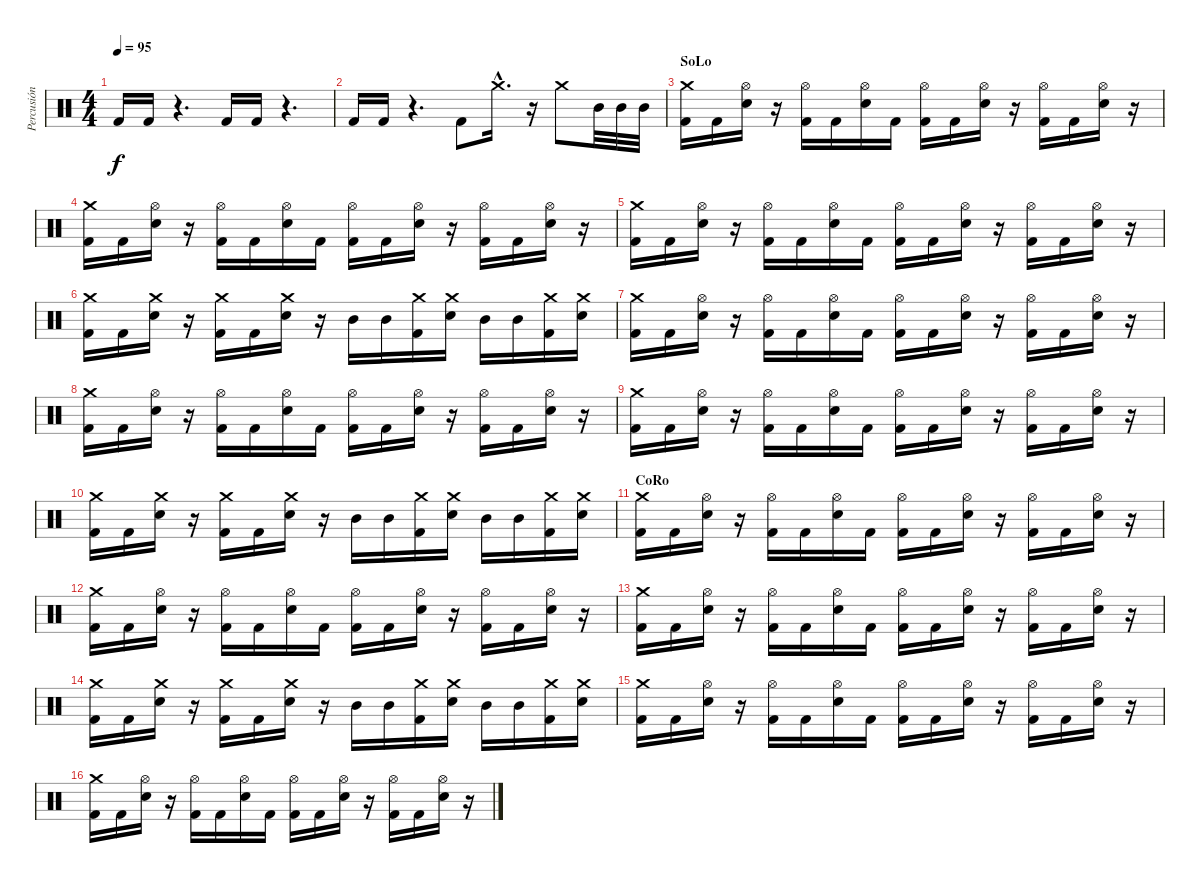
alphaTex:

\track ("Percusión" "Percusión") {instrument percussion}
\staff {score}
\articulation defaults
\ts (4 4)
\tempo 95
\clef neutral
\ks c "Kick (hit) 2".16{dy f} "Kick (hit) 2".16
r.4{d} "Kick (hit) 2".16 "Kick (hit) 2".16 r.4{d} |
"Kick (hit) 2".16 "Kick (hit) 2".16 r.4{d} "Kick (hit) 2".8 "Crash medium (hit)"{hac}.16{d} r.16 "Crash medium (hit)".8 "Mid Tom (hit)".32 "Mid Tom (hit)".32 "Mid Tom (hit)".32 |
\section ("" "SoLo")
("Crash medium (hit)" "Kick (hit) 2").16 "Kick (hit) 2".16 ("Hi-Hat (open)" "Electric Snare (hit)").16 r.16 ("Hi-Hat (open)" "Kick (hit) 2").16 "Kick (hit) 2".16 ("Hi-Hat (open)" "Electric Snare (hit)").16 "Kick (hit) 2".16 ("Hi-Hat (open)" "Kick (hit) 2").16 "Kick (hit) 2".16 ("Hi-Hat (open)" "Electric Snare (hit)").16 r.16 ("Hi-Hat (open)" "Kick (hit) 2").16 "Kick (hit) 2".16 ("Hi-Hat (open)" "Electric Snare (hit)").16 r.16 |
("Crash medium (hit)" "Kick (hit) 2").16 "Kick (hit) 2".16 ("Hi-Hat (open)" "Electric Snare (hit)").16 r.16 ("Hi-Hat (open)" "Kick (hit) 2").16 "Kick (hit) 2".16 ("Hi-Hat (open)" "Electric Snare (hit)").16 "Kick (hit) 2".16 ("Hi-Hat (open)" "Kick (hit) 2").16 "Kick (hit) 2".16 ("Hi-Hat (open)" "Electric Snare (hit)").16 r.16 ("Hi-Hat (open)" "Kick (hit) 2").16 "Kick (hit) 2".16 ("Hi-Hat (open)" "Electric Snare (hit)").16 r.16 |
("Crash medium (hit)" "Kick (hit) 2").16 "Kick (hit) 2".16 ("Hi-Hat (open)" "Electric Snare (hit)").16 r.16 ("Hi-Hat (open)" "Kick (hit) 2").16 "Kick (hit) 2".16 ("Hi-Hat (open)" "Electric Snare (hit)").16 "Kick (hit) 2".16 ("Hi-Hat (open)" "Kick (hit) 2").16 "Kick (hit) 2".16 ("Hi-Hat (open)" "Electric Snare (hit)").16 r.16 ("Hi-Hat (open)" "Kick (hit) 2").16 "Kick (hit) 2".16 ("Hi-Hat (open)" "Electric Snare (hit)").16 r.16 |
("Crash medium (hit)" "Kick (hit) 2").16 "Kick (hit) 2".16 ("Crash medium (hit)" "Electric Snare (hit)").16 r.16 ("Crash medium (hit)" "Kick (hit) 2").16 "Kick (hit) 2".16 ("Crash medium (hit)" "Electric Snare (hit)").16 r.16 "Mid Tom (hit)".16 "Mid Tom (hit)".16 ("Crash medium (hit)" "Kick (hit) 2").16 ("Crash medium (hit)" "Electric Snare (hit)").16 "Mid Tom (hit)".16 "Mid Tom (hit)".16 ("Crash medium (hit)" "Kick (hit) 2").16 ("Crash medium (hit)" "Electric Snare (hit)").16 |
("Crash medium (hit)" "Kick (hit) 2").16 "Kick (hit) 2".16 ("Hi-Hat (open)" "Electric Snare (hit)").16 r.16 ("Hi-Hat (open)" "Kick (hit) 2").16 "Kick (hit) 2".16 ("Hi-Hat (open)" "Electric Snare (hit)").16 "Kick (hit) 2".16 ("Hi-Hat (open)" "Kick (hit) 2").16 "Kick (hit) 2".16 ("Hi-Hat (open)" "Electric Snare (hit)").16 r.16 ("Hi-Hat (open)" "Kick (hit) 2").16 "Kick (hit) 2".16 ("Hi-Hat (open)" "Electric Snare (hit)").16 r.16 |
("Crash medium (hit)" "Kick (hit) 2").16 "Kick (hit) 2".16 ("Hi-Hat (open)" "Electric Snare (hit)").16 r.16 ("Hi-Hat (open)" "Kick (hit) 2").16 "Kick (hit) 2".16 ("Hi-Hat (open)" "Electric Snare (hit)").16 "Kick (hit) 2".16 ("Hi-Hat (open)" "Kick (hit) 2").16 "Kick (hit) 2".16 ("Hi-Hat (open)" "Electric Snare (hit)").16 r.16 ("Hi-Hat (open)" "Kick (hit) 2").16 "Kick (hit) 2".16 ("Hi-Hat (open)" "Electric Snare (hit)").16 r.16 |
("Crash medium (hit)" "Kick (hit) 2").16 "Kick (hit) 2".16 ("Hi-Hat (open)" "Electric Snare (hit)").16 r.16 ("Hi-Hat (open)" "Kick (hit) 2").16 "Kick (hit) 2".16 ("Hi-Hat (open)" "Electric Snare (hit)").16 "Kick (hit) 2".16 ("Hi-Hat (open)" "Kick (hit) 2").16 "Kick (hit) 2".16 ("Hi-Hat (open)" "Electric Snare (hit)").16 r.16 ("Hi-Hat (open)" "Kick (hit) 2").16 "Kick (hit) 2".16 ("Hi-Hat (open)" "Electric Snare (hit)").16 r.16 |
("Crash medium (hit)" "Kick (hit) 2").16 "Kick (hit) 2".16 ("Crash medium (hit)" "Electric Snare (hit)").16 r.16 ("Crash medium (hit)" "Kick (hit) 2").16 "Kick (hit) 2".16 ("Crash medium (hit)" "Electric Snare (hit)").16 r.16 "Mid Tom (hit)".16 "Mid Tom (hit)".16 ("Crash medium (hit)" "Kick (hit) 2").16 ("Crash medium (hit)" "Electric Snare (hit)").16 "Mid Tom (hit)".16 "Mid Tom (hit)".16 ("Crash medium (hit)" "Kick (hit) 2").16 ("Crash medium (hit)" "Electric Snare (hit)").16 |
\section ("" "CoRo")
("Crash medium (hit)" "Kick (hit) 2").16 "Kick (hit) 2".16 ("Hi-Hat (open)" "Electric Snare (hit)").16 r.16 ("Hi-Hat (open)" "Kick (hit) 2").16 "Kick (hit) 2".16 ("Hi-Hat (open)" "Electric Snare (hit)").16 "Kick (hit) 2".16 ("Hi-Hat (open)" "Kick (hit) 2").16 "Kick (hit) 2".16 ("Hi-Hat (open)" "Electric Snare (hit)").16 r.16 ("Hi-Hat (open)" "Kick (hit) 2").16 "Kick (hit) 2".16 ("Hi-Hat (open)" "Electric Snare (hit)").16 r.16 |
("Crash medium (hit)" "Kick (hit) 2").16 "Kick (hit) 2".16 ("Hi-Hat (open)" "Electric Snare (hit)").16 r.16 ("Hi-Hat (open)" "Kick (hit) 2").16 "Kick (hit) 2".16 ("Hi-Hat (open)" "Electric Snare (hit)").16 "Kick (hit) 2".16 ("Hi-Hat (open)" "Kick (hit) 2").16 "Kick (hit) 2".16 ("Hi-Hat (open)" "Electric Snare (hit)").16 r.16 ("Hi-Hat (open)" "Kick (hit) 2").16 "Kick (hit) 2".16 ("Hi-Hat (open)" "Electric Snare (hit)").16 r.16 |
("Crash medium (hit)" "Kick (hit) 2").16 "Kick (hit) 2".16 ("Hi-Hat (open)" "Electric Snare (hit)").16 r.16 ("Hi-Hat (open)" "Kick (hit) 2").16 "Kick (hit) 2".16 ("Hi-Hat (open)" "Electric Snare (hit)").16 "Kick (hit) 2".16 ("Hi-Hat (open)" "Kick (hit) 2").16 "Kick (hit) 2".16 ("Hi-Hat (open)" "Electric Snare (hit)").16 r.16 ("Hi-Hat (open)" "Kick (hit) 2").16 "Kick (hit) 2".16 ("Hi-Hat (open)" "Electric Snare (hit)").16 r.16 |
("Crash medium (hit)" "Kick (hit) 2").16 "Kick (hit) 2".16 ("Crash medium (hit)" "Electric Snare (hit)").16 r.16 ("Crash medium (hit)" "Kick (hit) 2").16 "Kick (hit) 2".16 ("Crash medium (hit)" "Electric Snare (hit)").16 r.16 "Mid Tom (hit)".16 "Mid Tom (hit)".16 ("Crash medium (hit)" "Kick (hit) 2").16 ("Crash medium (hit)" "Electric Snare (hit)").16 "Mid Tom (hit)".16 "Mid Tom (hit)".16 ("Crash medium (hit)" "Kick (hit) 2").16 ("Crash medium (hit)" "Electric Snare (hit)").16 |
("Crash medium (hit)" "Kick (hit) 2").16 "Kick (hit) 2".16 ("Hi-Hat (open)" "Electric Snare (hit)").16 r.16 ("Hi-Hat (open)" "Kick (hit) 2").16 "Kick (hit) 2".16 ("Hi-Hat (open)" "Electric Snare (hit)").16 "Kick (hit) 2".16 ("Hi-Hat (open)" "Kick (hit) 2").16 "Kick (hit) 2".16 ("Hi-Hat (open)" "Electric Snare (hit)").16 r.16 ("Hi-Hat (open)" "Kick (hit) 2").16 "Kick (hit) 2".16 ("Hi-Hat (open)" "Electric Snare (hit)").16 r.16 |
("Crash medium (hit)" "Kick (hit) 2").16 "Kick (hit) 2".16 ("Hi-Hat (open)" "Electric Snare (hit)").16 r.16 ("Hi-Hat (open)" "Kick (hit) 2").16 "Kick (hit) 2".16 ("Hi-Hat (open)" "Electric Snare (hit)").16 "Kick (hit) 2".16 ("Hi-Hat (open)" "Kick (hit) 2").16 "Kick (hit) 2".16 ("Hi-Hat (open)" "Electric Snare (hit)").16 r.16 ("Hi-Hat (open)" "Kick (hit) 2").16 "Kick (hit) 2".16 ("Hi-Hat (open)" "Electric Snare (hit)").16 r.16
